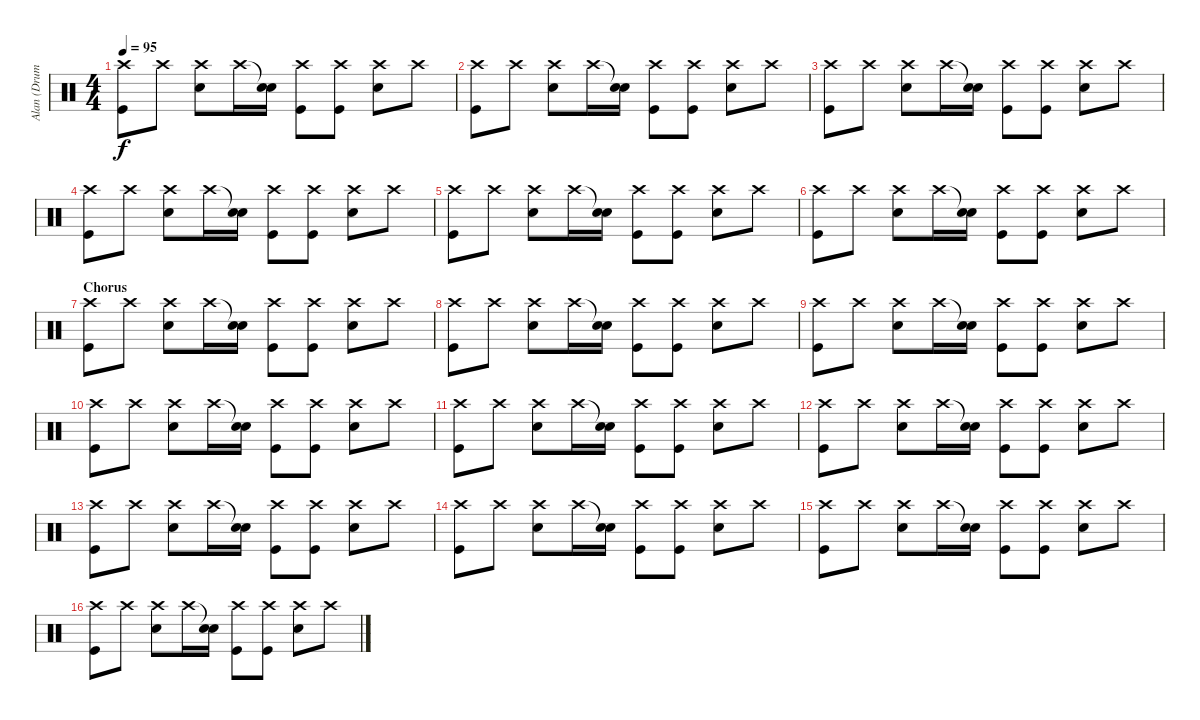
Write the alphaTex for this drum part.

\track ("Alan (Drums)" "Alan (Drum") {instrument percussion}
\staff {score}
\articulation defaults
\ts (4 4)
\tempo 95
\clef neutral
\ks c
("Crash high (hit)" "Kick (hit)").8{dy f} "Crash high (hit)".8 ("Crash high (hit)" "Electric Snare (hit)").8 "Crash high (hit)".16 ("Snare (hit)"{t} "Electric Snare (hit)").16 ("Crash high (hit)" "Kick (hit)").8 ("Crash high (hit)" "Kick (hit)").8 ("Crash high (hit)" "Electric Snare (hit)").8 "Crash high (hit)".8 |
("Crash high (hit)" "Kick (hit)").8 "Crash high (hit)".8 ("Crash high (hit)" "Electric Snare (hit)").8 "Crash high (hit)".16 ("Snare (hit)"{t} "Electric Snare (hit)").16 ("Crash high (hit)" "Kick (hit)").8 ("Crash high (hit)" "Kick (hit)").8 ("Crash high (hit)" "Electric Snare (hit)").8 "Crash high (hit)".8 |
("Crash high (hit)" "Kick (hit)").8 "Crash high (hit)".8 ("Crash high (hit)" "Electric Snare (hit)").8 "Crash high (hit)".16 ("Snare (hit)"{t} "Electric Snare (hit)").16 ("Crash high (hit)" "Kick (hit)").8 ("Crash high (hit)" "Kick (hit)").8 ("Crash high (hit)" "Electric Snare (hit)").8 "Crash high (hit)".8 |
("Crash high (hit)" "Kick (hit)").8 "Crash high (hit)".8 ("Crash high (hit)" "Electric Snare (hit)").8 "Crash high (hit)".16 ("Snare (hit)"{t} "Electric Snare (hit)").16 ("Crash high (hit)" "Kick (hit)").8 ("Crash high (hit)" "Kick (hit)").8 ("Crash high (hit)" "Electric Snare (hit)").8 "Crash high (hit)".8 |
("Crash high (hit)" "Kick (hit)").8 "Crash high (hit)".8 ("Crash high (hit)" "Electric Snare (hit)").8 "Crash high (hit)".16 ("Snare (hit)"{t} "Electric Snare (hit)").16 ("Crash high (hit)" "Kick (hit)").8 ("Crash high (hit)" "Kick (hit)").8 ("Crash high (hit)" "Electric Snare (hit)").8 "Crash high (hit)".8 |
("Crash high (hit)" "Kick (hit)").8 "Crash high (hit)".8 ("Crash high (hit)" "Electric Snare (hit)").8 "Crash high (hit)".16 ("Snare (hit)"{t} "Electric Snare (hit)").16 ("Crash high (hit)" "Kick (hit)").8 ("Crash high (hit)" "Kick (hit)").8 ("Crash high (hit)" "Electric Snare (hit)").8 "Crash high (hit)".8 |
\section ("" "Chorus")
("Crash high (hit)" "Kick (hit)").8 "Crash high (hit)".8 ("Crash high (hit)" "Electric Snare (hit)").8 "Crash high (hit)".16 ("Snare (hit)"{t} "Electric Snare (hit)").16 ("Crash high (hit)" "Kick (hit)").8 ("Crash high (hit)" "Kick (hit)").8 ("Crash high (hit)" "Electric Snare (hit)").8 "Crash high (hit)".8 |
("Crash high (hit)" "Kick (hit)").8 "Crash high (hit)".8 ("Crash high (hit)" "Electric Snare (hit)").8 "Crash high (hit)".16 ("Snare (hit)"{t} "Electric Snare (hit)").16 ("Crash high (hit)" "Kick (hit)").8 ("Crash high (hit)" "Kick (hit)").8 ("Crash high (hit)" "Electric Snare (hit)").8 "Crash high (hit)".8 |
("Crash high (hit)" "Kick (hit)").8 "Crash high (hit)".8 ("Crash high (hit)" "Electric Snare (hit)").8 "Crash high (hit)".16 ("Snare (hit)"{t} "Electric Snare (hit)").16 ("Crash high (hit)" "Kick (hit)").8 ("Crash high (hit)" "Kick (hit)").8 ("Crash high (hit)" "Electric Snare (hit)").8 "Crash high (hit)".8 |
("Crash high (hit)" "Kick (hit)").8 "Crash high (hit)".8 ("Crash high (hit)" "Electric Snare (hit)").8 "Crash high (hit)".16 ("Snare (hit)"{t} "Electric Snare (hit)").16 ("Crash high (hit)" "Kick (hit)").8 ("Crash high (hit)" "Kick (hit)").8 ("Crash high (hit)" "Electric Snare (hit)").8 "Crash high (hit)".8 |
("Crash high (hit)" "Kick (hit)").8 "Crash high (hit)".8 ("Crash high (hit)" "Electric Snare (hit)").8 "Crash high (hit)".16 ("Snare (hit)"{t} "Electric Snare (hit)").16 ("Crash high (hit)" "Kick (hit)").8 ("Crash high (hit)" "Kick (hit)").8 ("Crash high (hit)" "Electric Snare (hit)").8 "Crash high (hit)".8 |
("Crash high (hit)" "Kick (hit)").8 "Crash high (hit)".8 ("Crash high (hit)" "Electric Snare (hit)").8 "Crash high (hit)".16 ("Snare (hit)"{t} "Electric Snare (hit)").16 ("Crash high (hit)" "Kick (hit)").8 ("Crash high (hit)" "Kick (hit)").8 ("Crash high (hit)" "Electric Snare (hit)").8 "Crash high (hit)".8 |
("Crash high (hit)" "Kick (hit)").8 "Crash high (hit)".8 ("Crash high (hit)" "Electric Snare (hit)").8 "Crash high (hit)".16 ("Snare (hit)"{t} "Electric Snare (hit)").16 ("Crash high (hit)" "Kick (hit)").8 ("Crash high (hit)" "Kick (hit)").8 ("Crash high (hit)" "Electric Snare (hit)").8 "Crash high (hit)".8 |
("Crash high (hit)" "Kick (hit)").8 "Crash high (hit)".8 ("Crash high (hit)" "Electric Snare (hit)").8 "Crash high (hit)".16 ("Snare (hit)"{t} "Electric Snare (hit)").16 ("Crash high (hit)" "Kick (hit)").8 ("Crash high (hit)" "Kick (hit)").8 ("Crash high (hit)" "Electric Snare (hit)").8 "Crash high (hit)".8 |
("Crash high (hit)" "Kick (hit)").8 "Crash high (hit)".8 ("Crash high (hit)" "Electric Snare (hit)").8 "Crash high (hit)".16 ("Snare (hit)"{t} "Electric Snare (hit)").16 ("Crash high (hit)" "Kick (hit)").8 ("Crash high (hit)" "Kick (hit)").8 ("Crash high (hit)" "Electric Snare (hit)").8 "Crash high (hit)".8 |
("Crash high (hit)" "Kick (hit)").8 "Crash high (hit)".8 ("Crash high (hit)" "Electric Snare (hit)").8 "Crash high (hit)".16 ("Snare (hit)"{t} "Electric Snare (hit)").16 ("Crash high (hit)" "Kick (hit)").8 ("Crash high (hit)" "Kick (hit)").8 ("Crash high (hit)" "Electric Snare (hit)").8 "Crash high (hit)".8
